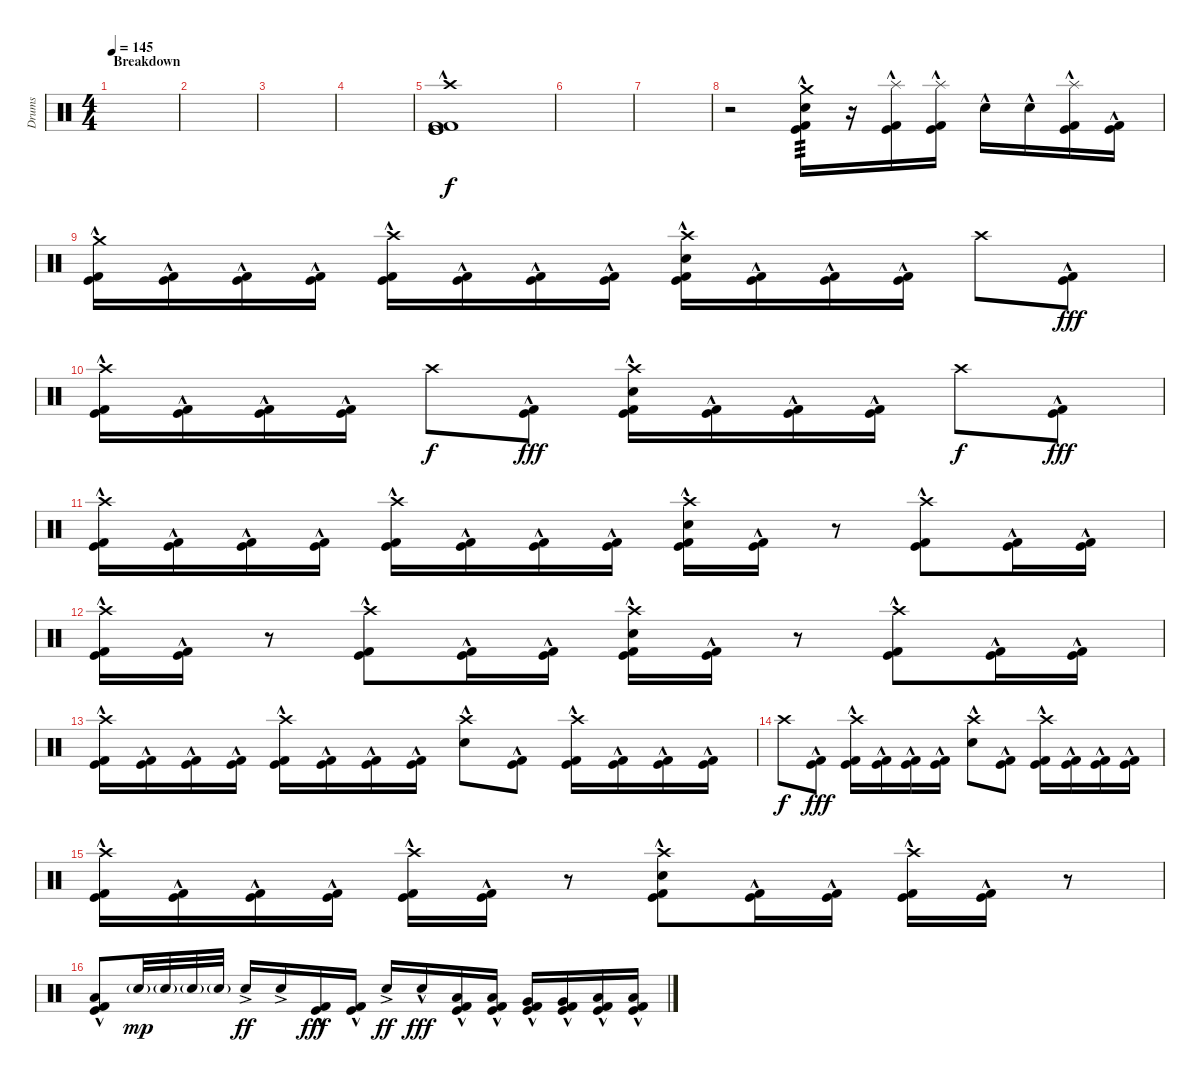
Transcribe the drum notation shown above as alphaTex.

\track ("Drums" "Drums") {instrument percussion}
\staff {score}
\articulation defaults
\ts (4 4)
\section ("" "Breakdown")
\tempo 145
\clef neutral
\ks c
|
|
|
|
("Crash high (hit)" "Kick (hit)"{hac} "Kick (hit) 2"{hac} "Kick (hit)"{hac} "Kick (hit) 2"{hac}).1 |
|
|
r.2 ("Crash medium (hit)" "Electric Snare (hit)"{hac} "Kick (hit)"{hac} "Kick (hit) 2"{hac}).16{tp 3} r.16 ("Splash (hit)" "Kick (hit)"{hac} "Kick (hit) 2"{hac}).16 ("Splash (hit)" "Kick (hit)"{hac} "Kick (hit) 2"{hac}).16 "Electric Snare (hit)"{hac}.16 "Electric Snare (hit)"{hac}.16 ("Splash (hit)" "Kick (hit)"{hac} "Kick (hit) 2"{hac}).16 ("Kick (hit)"{hac} "Kick (hit) 2").16 |
("Crash medium (hit)" "Kick (hit)"{hac} "Kick (hit) 2"{hac}).16 ("Kick (hit)"{hac} "Kick (hit) 2"{hac}).16 ("Kick (hit)"{hac} "Kick (hit) 2"{hac}).16 ("Kick (hit)"{hac} "Kick (hit) 2"{hac}).16 ("Crash high (hit)" "Kick (hit)"{hac} "Kick (hit) 2"{hac}).16 ("Kick (hit)"{hac} "Kick (hit) 2"{hac}).16 ("Kick (hit)"{hac} "Kick (hit) 2"{hac}).16 ("Kick (hit)"{hac} "Kick (hit) 2"{hac}).16 ("Crash high (hit)" "Electric Snare (hit)"{hac} "Kick (hit)"{hac} "Kick (hit) 2"{hac}).16 ("Kick (hit)"{hac} "Kick (hit) 2"{hac}).16 ("Kick (hit)"{hac} "Kick (hit) 2"{hac}).16 ("Kick (hit)"{hac} "Kick (hit) 2"{hac}).16 "Crash high (hit)".8{dy f} ("Kick (hit)"{hac} "Kick (hit) 2"{hac}).8{dy fff} |
("Crash high (hit)" "Kick (hit)"{hac} "Kick (hit) 2"{hac}).16 ("Kick (hit)"{hac} "Kick (hit) 2"{hac}).16 ("Kick (hit)"{hac} "Kick (hit) 2"{hac}).16 ("Kick (hit)"{hac} "Kick (hit) 2"{hac}).16 "Crash high (hit)".8{dy f} ("Kick (hit)"{hac} "Kick (hit) 2"{hac}).8{dy fff} ("Crash high (hit)" "Electric Snare (hit)"{hac} "Kick (hit)"{hac} "Kick (hit) 2"{hac}).16 ("Kick (hit)"{hac} "Kick (hit) 2"{hac}).16 ("Kick (hit)"{hac} "Kick (hit) 2"{hac}).16 ("Kick (hit)"{hac} "Kick (hit) 2"{hac}).16 "Crash high (hit)".8{dy f} ("Kick (hit)"{hac} "Kick (hit) 2"{hac}).8{dy fff} |
("Crash high (hit)" "Kick (hit)"{hac} "Kick (hit) 2"{hac}).16 ("Kick (hit)"{hac} "Kick (hit) 2"{hac}).16 ("Kick (hit)"{hac} "Kick (hit) 2"{hac}).16 ("Kick (hit)"{hac} "Kick (hit) 2"{hac}).16 ("Crash high (hit)" "Kick (hit)"{hac} "Kick (hit) 2"{hac}).16 ("Kick (hit)"{hac} "Kick (hit) 2"{hac}).16 ("Kick (hit)"{hac} "Kick (hit) 2"{hac}).16 ("Kick (hit)"{hac} "Kick (hit) 2"{hac}).16 ("Crash high (hit)" "Electric Snare (hit)"{hac} "Kick (hit)"{hac} "Kick (hit) 2"{hac}).16 ("Kick (hit)"{hac} "Kick (hit) 2"{hac}).16 r.8 ("Crash high (hit)" "Kick (hit)"{hac} "Kick (hit) 2"{hac}).8 ("Kick (hit)"{hac} "Kick (hit) 2"{hac}).16 ("Kick (hit)"{hac} "Kick (hit) 2"{hac}).16 |
("Crash high (hit)" "Kick (hit)"{hac} "Kick (hit) 2"{hac}).16 ("Kick (hit)"{hac} "Kick (hit) 2"{hac}).16 r.8 ("Crash high (hit)" "Kick (hit)"{hac} "Kick (hit) 2"{hac}).8 ("Kick (hit)"{hac} "Kick (hit) 2"{hac}).16 ("Kick (hit)"{hac} "Kick (hit) 2"{hac}).16 ("Crash high (hit)" "Electric Snare (hit)"{hac} "Kick (hit)"{hac} "Kick (hit) 2"{hac}).16 ("Kick (hit)"{hac} "Kick (hit) 2"{hac}).16 r.8 ("Crash high (hit)" "Kick (hit)"{hac} "Kick (hit) 2"{hac}).8 ("Kick (hit)"{hac} "Kick (hit) 2"{hac}).16 ("Kick (hit)"{hac} "Kick (hit) 2"{hac}).16 |
("Crash high (hit)" "Kick (hit)"{hac} "Kick (hit) 2"{hac}).16 ("Kick (hit)"{hac} "Kick (hit) 2"{hac}).16 ("Kick (hit)"{hac} "Kick (hit) 2"{hac}).16 ("Kick (hit)"{hac} "Kick (hit) 2"{hac}).16 ("Crash high (hit)" "Kick (hit)"{hac} "Kick (hit) 2"{hac}).16 ("Kick (hit)"{hac} "Kick (hit) 2"{hac}).16 ("Kick (hit)"{hac} "Kick (hit) 2"{hac}).16 ("Kick (hit)"{hac} "Kick (hit) 2"{hac}).16 ("Crash high (hit)" "Electric Snare (hit)"{hac}).8 ("Kick (hit)"{hac} "Kick (hit) 2"{hac}).8 ("Crash high (hit)" "Kick (hit)"{hac} "Kick (hit) 2"{hac}).16 ("Kick (hit)"{hac} "Kick (hit) 2"{hac}).16 ("Kick (hit)"{hac} "Kick (hit) 2"{hac}).16 ("Kick (hit)"{hac} "Kick (hit) 2"{hac}).16 |
"Crash high (hit)".8{dy f} ("Kick (hit)"{hac} "Kick (hit) 2"{hac}).8{dy fff} ("Crash high (hit)" "Kick (hit)"{hac} "Kick (hit) 2"{hac}).16 ("Kick (hit)"{hac} "Kick (hit) 2"{hac}).16 ("Kick (hit)"{hac} "Kick (hit) 2"{hac}).16 ("Kick (hit)"{hac} "Kick (hit) 2"{hac}).16 ("Crash high (hit)" "Electric Snare (hit)"{hac}).8 ("Kick (hit)"{hac} "Kick (hit) 2"{hac}).8 ("Crash high (hit)" "Kick (hit)"{hac} "Kick (hit) 2"{hac}).16 ("Kick (hit)"{hac} "Kick (hit) 2"{hac}).16 ("Kick (hit)"{hac} "Kick (hit) 2"{hac}).16 ("Kick (hit)"{hac} "Kick (hit) 2"{hac}).16 |
("Crash high (hit)" "Kick (hit)"{hac} "Kick (hit) 2"{hac}).16 ("Kick (hit)"{hac} "Kick (hit) 2"{hac}).16 ("Kick (hit)"{hac} "Kick (hit) 2"{hac}).16 ("Kick (hit)"{hac} "Kick (hit) 2"{hac}).16 ("Crash high (hit)" "Kick (hit)"{hac} "Kick (hit) 2"{hac}).16 ("Kick (hit)"{hac} "Kick (hit) 2"{hac}).16 r.8 ("Crash high (hit)" "Electric Snare (hit)"{hac} "Kick (hit)"{hac} "Kick (hit) 2"{hac}).8 ("Kick (hit)"{hac} "Kick (hit) 2"{hac}).16 ("Kick (hit)"{hac} "Kick (hit) 2"{hac}).16 ("Crash high (hit)" "Kick (hit)"{hac} "Kick (hit) 2"{hac}).16 ("Kick (hit)"{hac} "Kick (hit) 2"{hac}).16 r.8 |
("Low Tom (hit)"{hac} "Kick (hit)"{hac} "Kick (hit) 2"{hac}).8 "Electric Snare (hit)"{g}.32{dy mp} "Electric Snare (hit)"{g}.32 "Electric Snare (hit)"{g}.32 "Electric Snare (hit)"{g}.32 "Electric Snare (hit)"{ac}.16{dy ff} "Electric Snare (hit)"{ac}.16 ("Kick (hit)"{hac} "Kick (hit) 2"{hac}).16{dy fff} ("Kick (hit)"{hac} "Kick (hit) 2"{hac}).16 "Electric Snare (hit)"{ac}.16{dy ff} "Electric Snare (hit)"{hac}.16{dy fff} ("Low Tom (hit)"{hac} "Kick (hit)"{hac} "Kick (hit) 2"{hac}).16 ("Low Tom (hit)"{hac} "Kick (hit)"{hac} "Kick (hit) 2"{hac}).16 ("Very Low Tom (hit)"{hac} "Kick (hit)"{hac} "Kick (hit) 2"{hac}).16 ("Very Low Tom (hit)"{hac} "Kick (hit)"{hac} "Kick (hit) 2"{hac}).16 ("Low Floor Tom (hit)"{hac} "Kick (hit)"{hac} "Kick (hit) 2"{hac}).16 ("Low Floor Tom (hit)"{hac} "Kick (hit)"{hac} "Kick (hit) 2"{hac}).16
